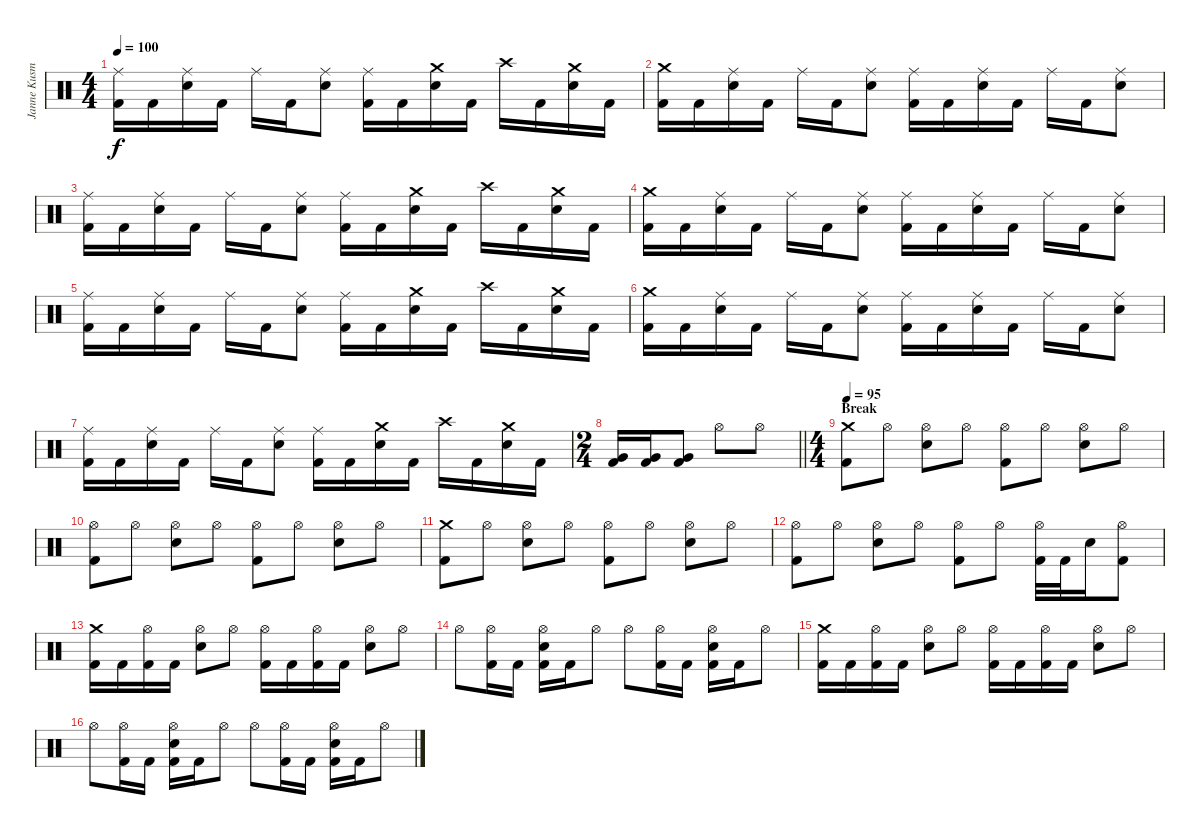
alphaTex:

\track ("Janne Kusmin " "Janne Kusm") {instrument percussion}
\staff {score}
\articulation defaults
\ts (4 4)
\tempo 100
\clef neutral
\ks c
("Ride (middle)" "Kick (hit) 2").16{dy f} "Kick (hit) 2".16 ("Ride (middle)" "Electric Snare (hit)").16 "Kick (hit) 2".16 "Ride (middle)".16 "Kick (hit) 2".16 ("Ride (middle)" "Electric Snare (hit)").8 ("Ride (middle)" "Kick (hit) 2").16 "Kick (hit) 2".16 ("Crash medium (hit)" "Electric Snare (hit)").16 "Kick (hit) 2".16 "Crash high (hit)".16 "Kick (hit) 2".16 ("Crash medium (hit)" "Electric Snare (hit)").16 "Kick (hit) 2".16 |
("Crash medium (hit)" "Kick (hit) 2").16 "Kick (hit) 2".16 ("Ride (middle)" "Electric Snare (hit)").16 "Kick (hit) 2".16 "Ride (middle)".16 "Kick (hit) 2".16 ("Ride (middle)" "Electric Snare (hit)").8 ("Ride (middle)" "Kick (hit) 2").16 "Kick (hit) 2".16 ("Ride (middle)" "Electric Snare (hit)").16 "Kick (hit) 2".16 "Ride (middle)".16 "Kick (hit) 2".16 ("Ride (middle)" "Electric Snare (hit)").8 |
("Ride (middle)" "Kick (hit) 2").16 "Kick (hit) 2".16 ("Ride (middle)" "Electric Snare (hit)").16 "Kick (hit) 2".16 "Ride (middle)".16 "Kick (hit) 2".16 ("Ride (middle)" "Electric Snare (hit)").8 ("Ride (middle)" "Kick (hit) 2").16 "Kick (hit) 2".16 ("Crash medium (hit)" "Electric Snare (hit)").16 "Kick (hit) 2".16 "Crash high (hit)".16 "Kick (hit) 2".16 ("Crash medium (hit)" "Electric Snare (hit)").16 "Kick (hit) 2".16 |
("Crash medium (hit)" "Kick (hit) 2").16 "Kick (hit) 2".16 ("Ride (middle)" "Electric Snare (hit)").16 "Kick (hit) 2".16 "Ride (middle)".16 "Kick (hit) 2".16 ("Ride (middle)" "Electric Snare (hit)").8 ("Ride (middle)" "Kick (hit) 2").16 "Kick (hit) 2".16 ("Ride (middle)" "Electric Snare (hit)").16 "Kick (hit) 2".16 "Ride (middle)".16 "Kick (hit) 2".16 ("Ride (middle)" "Electric Snare (hit)").8 |
("Ride (middle)" "Kick (hit) 2").16 "Kick (hit) 2".16 ("Ride (middle)" "Electric Snare (hit)").16 "Kick (hit) 2".16 "Ride (middle)".16 "Kick (hit) 2".16 ("Ride (middle)" "Electric Snare (hit)").8 ("Ride (middle)" "Kick (hit) 2").16 "Kick (hit) 2".16 ("Crash medium (hit)" "Electric Snare (hit)").16 "Kick (hit) 2".16 "Crash high (hit)".16 "Kick (hit) 2".16 ("Crash medium (hit)" "Electric Snare (hit)").16 "Kick (hit) 2".16 |
("Crash medium (hit)" "Kick (hit) 2").16 "Kick (hit) 2".16 ("Ride (middle)" "Electric Snare (hit)").16 "Kick (hit) 2".16 "Ride (middle)".16 "Kick (hit) 2".16 ("Ride (middle)" "Electric Snare (hit)").8 ("Ride (middle)" "Kick (hit) 2").16 "Kick (hit) 2".16 ("Ride (middle)" "Electric Snare (hit)").16 "Kick (hit) 2".16 "Ride (middle)".16 "Kick (hit) 2".16 ("Ride (middle)" "Electric Snare (hit)").8 |
("Ride (middle)" "Kick (hit) 2").16 "Kick (hit) 2".16 ("Ride (middle)" "Electric Snare (hit)").16 "Kick (hit) 2".16 "Ride (middle)".16 "Kick (hit) 2".16 ("Ride (middle)" "Electric Snare (hit)").8 ("Ride (middle)" "Kick (hit) 2").16 "Kick (hit) 2".16 ("Crash medium (hit)" "Electric Snare (hit)").16 "Kick (hit) 2".16 "Crash high (hit)".16 "Kick (hit) 2".16 ("Crash medium (hit)" "Electric Snare (hit)").16 "Kick (hit) 2".16 |
\ts (2 4)
\barLineRight lightlight
("Very Low Tom (hit)" "Kick (hit) 2").16 ("Very Low Tom (hit)" "Kick (hit) 2").16 ("Very Low Tom (hit)" "Kick (hit) 2").8 "Hi-Hat (open)".8 "Hi-Hat (open)".8 |
\ts (4 4)
\section ("" "Break")
\tempo 95
("Crash medium (hit)" "Kick (hit) 2").8 "Hi-Hat (open)".8 ("Hi-Hat (open)" "Electric Snare (hit)").8 "Hi-Hat (open)".8 ("Hi-Hat (open)" "Kick (hit) 2").8 "Hi-Hat (open)".8 ("Hi-Hat (open)" "Electric Snare (hit)").8 "Hi-Hat (open)".8 |
("Hi-Hat (open)" "Kick (hit) 2").8 "Hi-Hat (open)".8 ("Hi-Hat (open)" "Electric Snare (hit)").8 "Hi-Hat (open)".8 ("Hi-Hat (open)" "Kick (hit) 2").8 "Hi-Hat (open)".8 ("Hi-Hat (open)" "Electric Snare (hit)").8 "Hi-Hat (open)".8 |
("Crash medium (hit)" "Kick (hit) 2").8 "Hi-Hat (open)".8 ("Hi-Hat (open)" "Electric Snare (hit)").8 "Hi-Hat (open)".8 ("Hi-Hat (open)" "Kick (hit) 2").8 "Hi-Hat (open)".8 ("Hi-Hat (open)" "Electric Snare (hit)").8 "Hi-Hat (open)".8 |
("Hi-Hat (open)" "Kick (hit) 2").8 "Hi-Hat (open)".8 ("Hi-Hat (open)" "Electric Snare (hit)").8 "Hi-Hat (open)".8 ("Hi-Hat (open)" "Kick (hit) 2").8 "Hi-Hat (open)".8 ("Hi-Hat (open)" "Kick (hit) 2").32 "Kick (hit) 2".32 "Electric Snare (hit)".16 ("Hi-Hat (open)" "Kick (hit) 2").8 |
("Crash medium (hit)" "Kick (hit) 2").16 "Kick (hit) 2".16 ("Hi-Hat (open)" "Kick (hit) 2").16 "Kick (hit) 2".16 ("Hi-Hat (open)" "Electric Snare (hit)").8 "Hi-Hat (open)".8 ("Hi-Hat (open)" "Kick (hit) 2").16 "Kick (hit) 2".16 ("Hi-Hat (open)" "Kick (hit) 2").16 "Kick (hit) 2".16 ("Hi-Hat (open)" "Electric Snare (hit)").8 "Hi-Hat (open)".8 |
"Hi-Hat (open)".8 ("Hi-Hat (open)" "Kick (hit) 2").16 "Kick (hit) 2".16 ("Hi-Hat (open)" "Electric Snare (hit)" "Kick (hit) 2").16 "Kick (hit) 2".16 "Hi-Hat (open)".8 "Hi-Hat (open)".8 ("Hi-Hat (open)" "Kick (hit) 2").16 "Kick (hit) 2".16 ("Hi-Hat (open)" "Electric Snare (hit)" "Kick (hit) 2").16 "Kick (hit) 2".16 "Hi-Hat (open)".8 |
("Crash medium (hit)" "Kick (hit) 2").16 "Kick (hit) 2".16 ("Hi-Hat (open)" "Kick (hit) 2").16 "Kick (hit) 2".16 ("Hi-Hat (open)" "Electric Snare (hit)").8 "Hi-Hat (open)".8 ("Hi-Hat (open)" "Kick (hit) 2").16 "Kick (hit) 2".16 ("Hi-Hat (open)" "Kick (hit) 2").16 "Kick (hit) 2".16 ("Hi-Hat (open)" "Electric Snare (hit)").8 "Hi-Hat (open)".8 |
"Hi-Hat (open)".8 ("Hi-Hat (open)" "Kick (hit) 2").16 "Kick (hit) 2".16 ("Hi-Hat (open)" "Electric Snare (hit)" "Kick (hit) 2").16 "Kick (hit) 2".16 "Hi-Hat (open)".8 "Hi-Hat (open)".8 ("Hi-Hat (open)" "Kick (hit) 2").16 "Kick (hit) 2".16 ("Hi-Hat (open)" "Electric Snare (hit)" "Kick (hit) 2").16 "Kick (hit) 2".16 "Hi-Hat (open)".8
